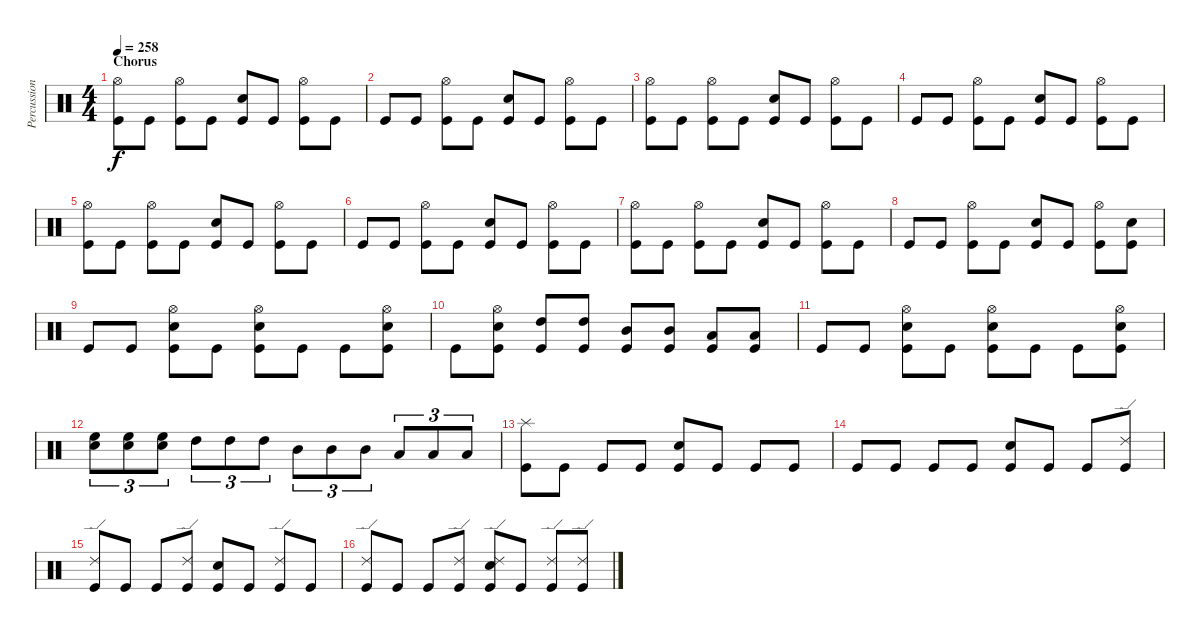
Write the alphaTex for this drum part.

\track ("Percussion" "Percussion") {instrument percussion}
\staff {score}
\articulation defaults
\ts (4 4)
\section ("" "Chorus")
\tempo 261
\tempo 258
\clef neutral
\ks c
("Hi-Hat (open)" "Kick (hit)").8{dy f} "Kick (hit)".8 ("Hi-Hat (open)" "Kick (hit)").8 "Kick (hit)".8 ("Snare (hit) 2" "Kick (hit)").8 "Kick (hit)".8 ("Hi-Hat (open)" "Kick (hit)").8 "Kick (hit)".8 |
"Kick (hit)".8 "Kick (hit)".8 ("Hi-Hat (open)" "Kick (hit)").8 "Kick (hit)".8 ("Snare (hit) 2" "Kick (hit)").8 "Kick (hit)".8 ("Hi-Hat (open)" "Kick (hit)").8 "Kick (hit)".8 |
("Hi-Hat (open)" "Kick (hit)").8 "Kick (hit)".8 ("Hi-Hat (open)" "Kick (hit)").8 "Kick (hit)".8 ("Snare (hit) 2" "Kick (hit)").8 "Kick (hit)".8 ("Hi-Hat (open)" "Kick (hit)").8 "Kick (hit)".8 |
"Kick (hit)".8 "Kick (hit)".8 ("Hi-Hat (open)" "Kick (hit)").8 "Kick (hit)".8 ("Snare (hit) 2" "Kick (hit)").8 "Kick (hit)".8 ("Hi-Hat (open)" "Kick (hit)").8 "Kick (hit)".8 |
("Hi-Hat (open)" "Kick (hit)").8 "Kick (hit)".8 ("Hi-Hat (open)" "Kick (hit)").8 "Kick (hit)".8 ("Snare (hit) 2" "Kick (hit)").8 "Kick (hit)".8 ("Hi-Hat (open)" "Kick (hit)").8 "Kick (hit)".8 |
"Kick (hit)".8 "Kick (hit)".8 ("Hi-Hat (open)" "Kick (hit)").8 "Kick (hit)".8 ("Snare (hit) 2" "Kick (hit)").8 "Kick (hit)".8 ("Hi-Hat (open)" "Kick (hit)").8 "Kick (hit)".8 |
("Hi-Hat (open)" "Kick (hit)").8 "Kick (hit)".8 ("Hi-Hat (open)" "Kick (hit)").8 "Kick (hit)".8 ("Snare (hit) 2" "Kick (hit)").8 "Kick (hit)".8 ("Hi-Hat (open)" "Kick (hit)").8 "Kick (hit)".8 |
"Kick (hit)".8 "Kick (hit)".8 ("Hi-Hat (open)" "Kick (hit)").8 "Kick (hit)".8 ("Snare (hit) 2" "Kick (hit)").8 "Kick (hit)".8 ("Hi-Hat (open)" "Kick (hit)").8 ("Snare (hit) 2" "Kick (hit)").8 |
"Kick (hit)".8 "Kick (hit)".8 ("Snare (hit) 2" "Hi-Hat (open)" "Kick (hit)").8 "Kick (hit)".8 ("Snare (hit) 2" "Hi-Hat (open)" "Kick (hit)").8 "Kick (hit)".8 "Kick (hit)".8 ("Snare (hit) 2" "Hi-Hat (open)" "Kick (hit)").8 |
"Kick (hit)".8 ("Snare (hit) 2" "Hi-Hat (open)" "Kick (hit)").8 ("High Tom (hit)" "Kick (hit)").8 ("High Tom (hit)" "Kick (hit)").8 ("Mid Tom (hit)" "Kick (hit)").8 ("Mid Tom (hit)" "Kick (hit)").8 ("Low Tom (hit)" "Kick (hit)").8 ("Low Tom (hit)" "Kick (hit)").8 |
"Kick (hit)".8 "Kick (hit)".8 ("Snare (hit) 2" "Hi-Hat (open)" "Kick (hit)").8 "Kick (hit)".8 ("Snare (hit) 2" "Hi-Hat (open)" "Kick (hit)").8 "Kick (hit)".8 "Kick (hit)".8 ("Snare (hit) 2" "Hi-Hat (open)" "Kick (hit)").8 |
("High Floor Tom (hit)" "Snare (hit) 2").8{tu (3 2)} ("High Floor Tom (hit)" "Snare (hit) 2").8{tu (3 2)} ("High Floor Tom (hit)" "Snare (hit) 2").8{tu (3 2)} "High Tom (hit)".8{tu (3 2)} "High Tom (hit)".8{tu (3 2)} "High Tom (hit)".8{tu (3 2)} "Mid Tom (hit)".8{tu (3 2)} "Mid Tom (hit)".8{tu (3 2)} "Mid Tom (hit)".8{tu (3 2)} "Low Tom (hit)".8{tu (3 2)} "Low Tom (hit)".8{tu (3 2)} "Low Tom (hit)".8{tu (3 2)} |
("Splash (hit)" "Kick (hit)").8 "Kick (hit)".8 "Kick (hit)".8 "Kick (hit)".8 ("Snare (hit) 2" "Kick (hit)").8 "Kick (hit)".8 "Kick (hit)".8 "Kick (hit)".8 |
"Kick (hit)".8 "Kick (hit)".8 "Kick (hit)".8 "Kick (hit)".8 ("Snare (hit) 2" "Kick (hit)").8 "Kick (hit)".8 "Kick (hit)".8 ("Ride (edge) 2" "Kick (hit)").8 |
("Ride (edge) 2" "Kick (hit)").8 "Kick (hit)".8 "Kick (hit)".8 ("Ride (edge) 2" "Kick (hit)").8 ("Snare (hit) 2" "Kick (hit)").8 "Kick (hit)".8 ("Ride (edge) 2" "Kick (hit)").8 "Kick (hit)".8 |
("Ride (edge) 2" "Kick (hit)").8 "Kick (hit)".8 "Kick (hit)".8 ("Ride (edge) 2" "Kick (hit)").8 ("Snare (hit) 2" "Ride (edge) 2" "Kick (hit)").8 "Kick (hit)".8 ("Ride (edge) 2" "Kick (hit)").8 ("Ride (edge) 2" "Kick (hit)").8
